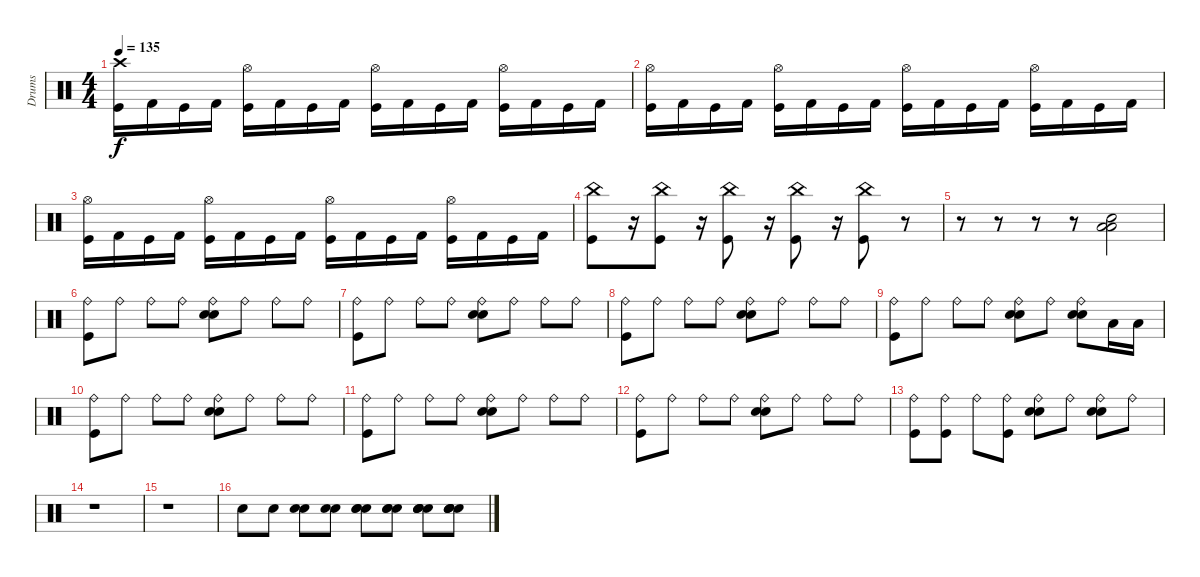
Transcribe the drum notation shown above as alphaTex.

\track ("Drums" "Drums") {instrument percussion}
\staff {score}
\articulation defaults
\ts (4 4)
\tempo 135
\clef neutral
\ks c
("Kick (hit)" "Crash high (hit)").16{dy f} "Kick (hit) 2".16 "Kick (hit)".16 "Kick (hit) 2".16 ("Kick (hit)" "Hi-Hat (open)").16 "Kick (hit) 2".16 "Kick (hit)".16 "Kick (hit) 2".16 ("Kick (hit)" "Hi-Hat (open)").16 "Kick (hit) 2".16 "Kick (hit)".16 "Kick (hit) 2".16 ("Kick (hit)" "Hi-Hat (open)").16 "Kick (hit) 2".16 "Kick (hit)".16 "Kick (hit) 2".16 |
("Kick (hit)" "Hi-Hat (open)").16 "Kick (hit) 2".16 "Kick (hit)".16 "Kick (hit) 2".16 ("Kick (hit)" "Hi-Hat (open)").16 "Kick (hit) 2".16 "Kick (hit)".16 "Kick (hit) 2".16 ("Kick (hit)" "Hi-Hat (open)").16 "Kick (hit) 2".16 "Kick (hit)".16 "Kick (hit) 2".16 ("Kick (hit)" "Hi-Hat (open)").16 "Kick (hit) 2".16 "Kick (hit)".16 "Kick (hit) 2".16 |
("Kick (hit)" "Hi-Hat (open)").16 "Kick (hit) 2".16 "Kick (hit)".16 "Kick (hit) 2".16 ("Kick (hit)" "Hi-Hat (open)").16 "Kick (hit) 2".16 "Kick (hit)".16 "Kick (hit) 2".16 ("Kick (hit)" "Hi-Hat (open)").16 "Kick (hit) 2".16 "Kick (hit)".16 "Kick (hit) 2".16 ("Kick (hit)" "Hi-Hat (open)").16 "Kick (hit) 2".16 "Kick (hit)".16 "Kick (hit) 2".16 |
("Kick (hit)" "China (hit)").8 r.16 ("Kick (hit)" "China (hit)").8 r.16 ("Kick (hit)" "China (hit)").8 r.16 ("Kick (hit)" "China (hit)").8 r.16 ("Kick (hit)" "China (hit)").8 r.8 |
r.8 r.8 r.8 r.8 ("Low Tom (hit)" "Low Tom (hit)" "Electric Snare (hit)").2 |
("Kick (hit)" "Ride (bell)").8 "Ride (bell)".8 "Ride (bell)".8 "Ride (bell)".8 ("Ride (bell)" "Electric Snare (hit)" "Electric Snare (hit)").8 "Ride (bell)".8 "Ride (bell)".8 "Ride (bell)".8 |
("Kick (hit)" "Ride (bell)").8 "Ride (bell)".8 "Ride (bell)".8 "Ride (bell)".8 ("Ride (bell)" "Electric Snare (hit)" "Electric Snare (hit)").8 "Ride (bell)".8 "Ride (bell)".8 "Ride (bell)".8 |
("Kick (hit)" "Ride (bell)").8 "Ride (bell)".8 "Ride (bell)".8 "Ride (bell)".8 ("Ride (bell)" "Electric Snare (hit)" "Electric Snare (hit)").8 "Ride (bell)".8 "Ride (bell)".8 "Ride (bell)".8 |
("Kick (hit)" "Ride (bell)").8 "Ride (bell)".8 "Ride (bell)".8 "Ride (bell)".8 ("Ride (bell)" "Electric Snare (hit)" "Electric Snare (hit)").8 "Ride (bell)".8 ("Ride (bell)" "Electric Snare (hit)" "Electric Snare (hit)").8 "Low Tom (hit)".16 "Low Tom (hit)".16 |
("Kick (hit)" "Ride (bell)").8 "Ride (bell)".8 "Ride (bell)".8 "Ride (bell)".8 ("Ride (bell)" "Electric Snare (hit)" "Electric Snare (hit)").8 "Ride (bell)".8 "Ride (bell)".8 "Ride (bell)".8 |
("Kick (hit)" "Ride (bell)").8 "Ride (bell)".8 "Ride (bell)".8 "Ride (bell)".8 ("Ride (bell)" "Electric Snare (hit)" "Electric Snare (hit)").8 "Ride (bell)".8 "Ride (bell)".8 "Ride (bell)".8 |
("Kick (hit)" "Ride (bell)").8 "Ride (bell)".8 "Ride (bell)".8 "Ride (bell)".8 ("Ride (bell)" "Electric Snare (hit)" "Electric Snare (hit)").8 "Ride (bell)".8 "Ride (bell)".8 "Ride (bell)".8 |
("Kick (hit)" "Ride (bell)").8 ("Kick (hit)" "Ride (bell)").8 "Ride (bell)".8 ("Kick (hit)" "Ride (bell)").8 ("Ride (bell)" "Electric Snare (hit)" "Electric Snare (hit)").8 "Ride (bell)".8 ("Ride (bell)" "Electric Snare (hit)" "Electric Snare (hit)").8 "Ride (bell)".8 |
r.1 |
r.1 |
"Electric Snare (hit)".8 "Electric Snare (hit)".8 ("Electric Snare (hit)" "Electric Snare (hit)").8 ("Electric Snare (hit)" "Electric Snare (hit)").8 ("Electric Snare (hit)" "Electric Snare (hit)" "Electric Snare (hit)").8 ("Electric Snare (hit)" "Electric Snare (hit)" "Electric Snare (hit)").8 ("Electric Snare (hit)" "Electric Snare (hit)" "Electric Snare (hit)" "Electric Snare (hit)").8 ("Electric Snare (hit)" "Electric Snare (hit)" "Electric Snare (hit)" "Electric Snare (hit)").8
